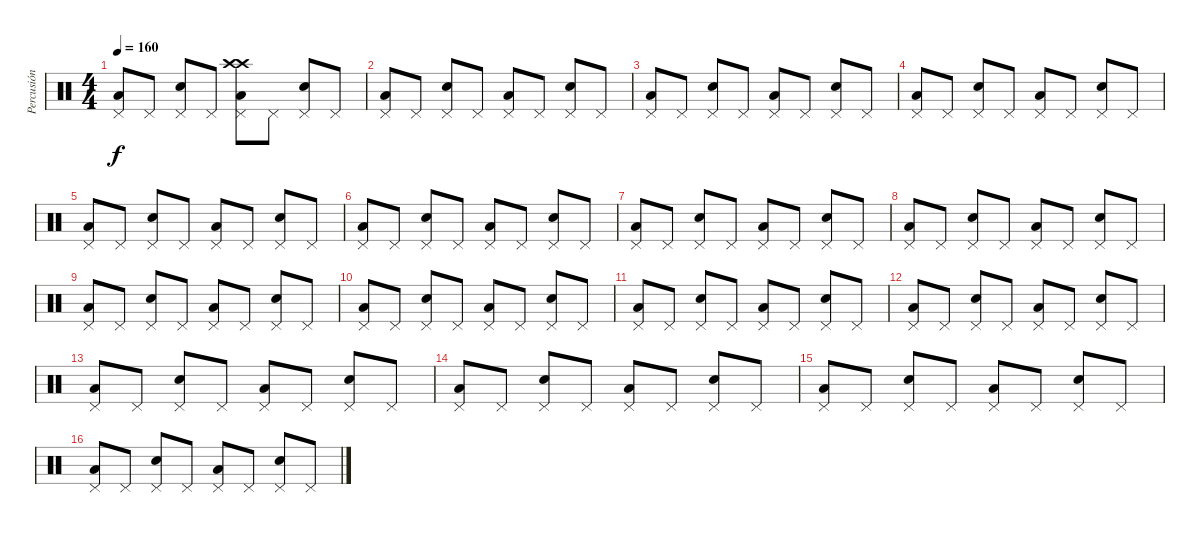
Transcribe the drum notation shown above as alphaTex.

\track ("Percusión" "Percusión") {instrument percussion}
\staff {score}
\articulation defaults
\ts (4 4)
\tempo 160
\clef neutral
\ks c
("Pedal Hi-Hat (hit)" "Low Floor Tom (hit)").8{dy f} "Pedal Hi-Hat (hit)".8 ("Pedal Hi-Hat (hit)" "Snare (hit) 2").8 "Pedal Hi-Hat (hit)".8 ("Pedal Hi-Hat (hit)" "Low Floor Tom (hit)" "Crash high (hit)" "Crash high (hit)").8 "Pedal Hi-Hat (hit)".8 ("Pedal Hi-Hat (hit)" "Snare (hit) 2").8 "Pedal Hi-Hat (hit)".8 |
("Pedal Hi-Hat (hit)" "Low Floor Tom (hit)").8 "Pedal Hi-Hat (hit)".8 ("Pedal Hi-Hat (hit)" "Snare (hit) 2").8 "Pedal Hi-Hat (hit)".8 ("Pedal Hi-Hat (hit)" "Low Floor Tom (hit)").8 "Pedal Hi-Hat (hit)".8 ("Pedal Hi-Hat (hit)" "Snare (hit) 2").8 "Pedal Hi-Hat (hit)".8 |
("Pedal Hi-Hat (hit)" "Low Floor Tom (hit)").8 "Pedal Hi-Hat (hit)".8 ("Pedal Hi-Hat (hit)" "Snare (hit) 2").8 "Pedal Hi-Hat (hit)".8 ("Pedal Hi-Hat (hit)" "Low Floor Tom (hit)").8 "Pedal Hi-Hat (hit)".8 ("Pedal Hi-Hat (hit)" "Snare (hit) 2").8 "Pedal Hi-Hat (hit)".8 |
("Pedal Hi-Hat (hit)" "Low Floor Tom (hit)").8 "Pedal Hi-Hat (hit)".8 ("Pedal Hi-Hat (hit)" "Snare (hit) 2").8 "Pedal Hi-Hat (hit)".8 ("Pedal Hi-Hat (hit)" "Low Floor Tom (hit)").8 "Pedal Hi-Hat (hit)".8 ("Pedal Hi-Hat (hit)" "Snare (hit) 2").8 "Pedal Hi-Hat (hit)".8 |
("Pedal Hi-Hat (hit)" "Low Floor Tom (hit)").8 "Pedal Hi-Hat (hit)".8 ("Pedal Hi-Hat (hit)" "Snare (hit) 2").8 "Pedal Hi-Hat (hit)".8 ("Pedal Hi-Hat (hit)" "Low Floor Tom (hit)").8 "Pedal Hi-Hat (hit)".8 ("Pedal Hi-Hat (hit)" "Snare (hit) 2").8 "Pedal Hi-Hat (hit)".8 |
("Pedal Hi-Hat (hit)" "Low Floor Tom (hit)").8 "Pedal Hi-Hat (hit)".8 ("Pedal Hi-Hat (hit)" "Snare (hit) 2").8 "Pedal Hi-Hat (hit)".8 ("Pedal Hi-Hat (hit)" "Low Floor Tom (hit)").8 "Pedal Hi-Hat (hit)".8 ("Pedal Hi-Hat (hit)" "Snare (hit) 2").8 "Pedal Hi-Hat (hit)".8 |
("Pedal Hi-Hat (hit)" "Low Floor Tom (hit)").8 "Pedal Hi-Hat (hit)".8 ("Pedal Hi-Hat (hit)" "Snare (hit) 2").8 "Pedal Hi-Hat (hit)".8 ("Pedal Hi-Hat (hit)" "Low Floor Tom (hit)").8 "Pedal Hi-Hat (hit)".8 ("Pedal Hi-Hat (hit)" "Snare (hit) 2").8 "Pedal Hi-Hat (hit)".8 |
("Pedal Hi-Hat (hit)" "Low Floor Tom (hit)").8 "Pedal Hi-Hat (hit)".8 ("Pedal Hi-Hat (hit)" "Snare (hit) 2").8 "Pedal Hi-Hat (hit)".8 ("Pedal Hi-Hat (hit)" "Low Floor Tom (hit)").8 "Pedal Hi-Hat (hit)".8 ("Pedal Hi-Hat (hit)" "Snare (hit) 2").8 "Pedal Hi-Hat (hit)".8 |
("Pedal Hi-Hat (hit)" "Low Floor Tom (hit)").8 "Pedal Hi-Hat (hit)".8 ("Pedal Hi-Hat (hit)" "Snare (hit) 2").8 "Pedal Hi-Hat (hit)".8 ("Pedal Hi-Hat (hit)" "Low Floor Tom (hit)").8 "Pedal Hi-Hat (hit)".8 ("Pedal Hi-Hat (hit)" "Snare (hit) 2").8 "Pedal Hi-Hat (hit)".8 |
("Pedal Hi-Hat (hit)" "Low Floor Tom (hit)").8 "Pedal Hi-Hat (hit)".8 ("Pedal Hi-Hat (hit)" "Snare (hit) 2").8 "Pedal Hi-Hat (hit)".8 ("Pedal Hi-Hat (hit)" "Low Floor Tom (hit)").8 "Pedal Hi-Hat (hit)".8 ("Pedal Hi-Hat (hit)" "Snare (hit) 2").8 "Pedal Hi-Hat (hit)".8 |
("Pedal Hi-Hat (hit)" "Low Floor Tom (hit)").8 "Pedal Hi-Hat (hit)".8 ("Pedal Hi-Hat (hit)" "Snare (hit) 2").8 "Pedal Hi-Hat (hit)".8 ("Pedal Hi-Hat (hit)" "Low Floor Tom (hit)").8 "Pedal Hi-Hat (hit)".8 ("Pedal Hi-Hat (hit)" "Snare (hit) 2").8 "Pedal Hi-Hat (hit)".8 |
("Pedal Hi-Hat (hit)" "Low Floor Tom (hit)").8 "Pedal Hi-Hat (hit)".8 ("Pedal Hi-Hat (hit)" "Snare (hit) 2").8 "Pedal Hi-Hat (hit)".8 ("Pedal Hi-Hat (hit)" "Low Floor Tom (hit)").8 "Pedal Hi-Hat (hit)".8 ("Pedal Hi-Hat (hit)" "Snare (hit) 2").8 "Pedal Hi-Hat (hit)".8 |
("Pedal Hi-Hat (hit)" "Low Floor Tom (hit)").8 "Pedal Hi-Hat (hit)".8 ("Pedal Hi-Hat (hit)" "Snare (hit) 2").8 "Pedal Hi-Hat (hit)".8 ("Pedal Hi-Hat (hit)" "Low Floor Tom (hit)").8 "Pedal Hi-Hat (hit)".8 ("Pedal Hi-Hat (hit)" "Snare (hit) 2").8 "Pedal Hi-Hat (hit)".8 |
("Pedal Hi-Hat (hit)" "Low Floor Tom (hit)").8 "Pedal Hi-Hat (hit)".8 ("Pedal Hi-Hat (hit)" "Snare (hit) 2").8 "Pedal Hi-Hat (hit)".8 ("Pedal Hi-Hat (hit)" "Low Floor Tom (hit)").8 "Pedal Hi-Hat (hit)".8 ("Pedal Hi-Hat (hit)" "Snare (hit) 2").8 "Pedal Hi-Hat (hit)".8 |
("Pedal Hi-Hat (hit)" "Low Floor Tom (hit)").8 "Pedal Hi-Hat (hit)".8 ("Pedal Hi-Hat (hit)" "Snare (hit) 2").8 "Pedal Hi-Hat (hit)".8 ("Pedal Hi-Hat (hit)" "Low Floor Tom (hit)").8 "Pedal Hi-Hat (hit)".8 ("Pedal Hi-Hat (hit)" "Snare (hit) 2").8 "Pedal Hi-Hat (hit)".8 |
("Pedal Hi-Hat (hit)" "Low Floor Tom (hit)").8 "Pedal Hi-Hat (hit)".8 ("Pedal Hi-Hat (hit)" "Snare (hit) 2").8 "Pedal Hi-Hat (hit)".8 ("Pedal Hi-Hat (hit)" "Low Floor Tom (hit)").8 "Pedal Hi-Hat (hit)".8 ("Pedal Hi-Hat (hit)" "Snare (hit) 2").8 "Pedal Hi-Hat (hit)".8
